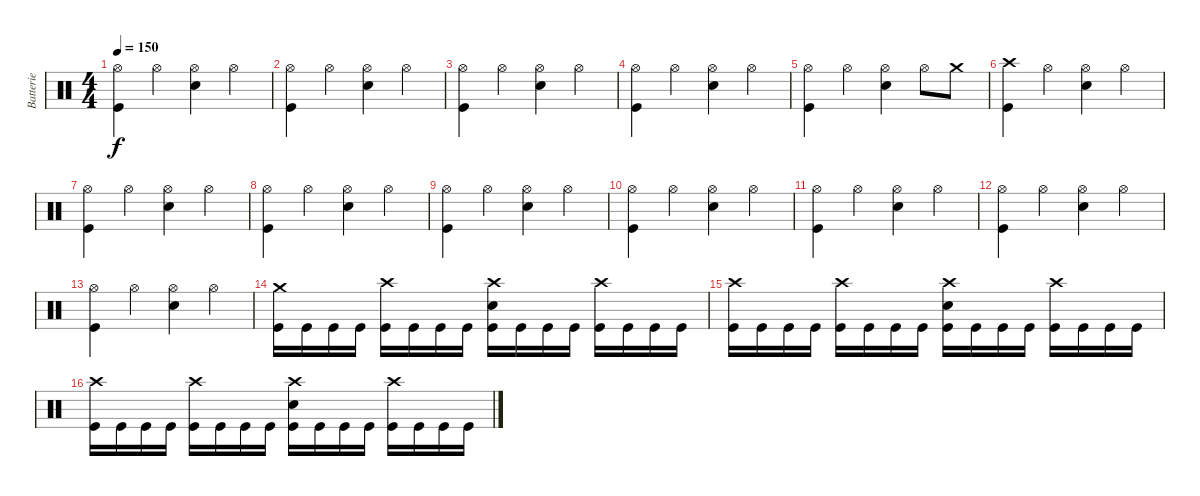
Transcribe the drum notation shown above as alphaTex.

\track ("Batterie" "Batterie") {instrument percussion}
\staff {score}
\articulation defaults
\ts (4 4)
\tempo 150
\clef neutral
\ks c
("Hi-Hat (open)" "Kick (hit)").4{dy f} "Hi-Hat (open)".4 ("Hi-Hat (open)" "Electric Snare (hit)").4 "Hi-Hat (open)".4 |
("Hi-Hat (open)" "Kick (hit)").4 "Hi-Hat (open)".4 ("Hi-Hat (open)" "Electric Snare (hit)").4 "Hi-Hat (open)".4 |
("Hi-Hat (open)" "Kick (hit)").4 "Hi-Hat (open)".4 ("Hi-Hat (open)" "Electric Snare (hit)").4 "Hi-Hat (open)".4 |
("Hi-Hat (open)" "Kick (hit)").4 "Hi-Hat (open)".4 ("Hi-Hat (open)" "Electric Snare (hit)").4 "Hi-Hat (open)".4 |
("Hi-Hat (open)" "Kick (hit)").4 "Hi-Hat (open)".4 ("Hi-Hat (open)" "Electric Snare (hit)").4 "Hi-Hat (open)".8 "Crash medium (hit)".8 |
("Crash high (hit)" "Kick (hit)").4 "Hi-Hat (open)".4 ("Hi-Hat (open)" "Electric Snare (hit)").4 "Hi-Hat (open)".4 |
("Hi-Hat (open)" "Kick (hit)").4 "Hi-Hat (open)".4 ("Hi-Hat (open)" "Electric Snare (hit)").4 "Hi-Hat (open)".4 |
("Hi-Hat (open)" "Kick (hit)").4 "Hi-Hat (open)".4 ("Hi-Hat (open)" "Electric Snare (hit)").4 "Hi-Hat (open)".4 |
("Hi-Hat (open)" "Kick (hit)").4 "Hi-Hat (open)".4 ("Hi-Hat (open)" "Electric Snare (hit)").4 "Hi-Hat (open)".4 |
("Hi-Hat (open)" "Kick (hit)").4 "Hi-Hat (open)".4 ("Hi-Hat (open)" "Electric Snare (hit)").4 "Hi-Hat (open)".4 |
("Hi-Hat (open)" "Kick (hit)").4 "Hi-Hat (open)".4 ("Hi-Hat (open)" "Electric Snare (hit)").4 "Hi-Hat (open)".4 |
("Hi-Hat (open)" "Kick (hit)").4 "Hi-Hat (open)".4 ("Hi-Hat (open)" "Electric Snare (hit)").4 "Hi-Hat (open)".4 |
("Hi-Hat (open)" "Kick (hit)").4 "Hi-Hat (open)".4 ("Hi-Hat (open)" "Electric Snare (hit)").4 "Hi-Hat (open)".4 |
("Crash medium (hit)" "Kick (hit)").16 "Kick (hit)".16 "Kick (hit)".16 "Kick (hit)".16 ("Crash high (hit)" "Kick (hit)").16 "Kick (hit)".16 "Kick (hit)".16 "Kick (hit)".16 ("Crash high (hit)" "Electric Snare (hit)" "Kick (hit)").16 "Kick (hit)".16 "Kick (hit)".16 "Kick (hit)".16 ("Crash high (hit)" "Kick (hit)").16 "Kick (hit)".16 "Kick (hit)".16 "Kick (hit)".16 |
("Crash high (hit)" "Kick (hit)").16 "Kick (hit)".16 "Kick (hit)".16 "Kick (hit)".16 ("Crash high (hit)" "Kick (hit)").16 "Kick (hit)".16 "Kick (hit)".16 "Kick (hit)".16 ("Crash high (hit)" "Electric Snare (hit)" "Kick (hit)").16 "Kick (hit)".16 "Kick (hit)".16 "Kick (hit)".16 ("Crash high (hit)" "Kick (hit)").16 "Kick (hit)".16 "Kick (hit)".16 "Kick (hit)".16 |
("Crash high (hit)" "Kick (hit)").16 "Kick (hit)".16 "Kick (hit)".16 "Kick (hit)".16 ("Crash high (hit)" "Kick (hit)").16 "Kick (hit)".16 "Kick (hit)".16 "Kick (hit)".16 ("Crash high (hit)" "Electric Snare (hit)" "Kick (hit)").16 "Kick (hit)".16 "Kick (hit)".16 "Kick (hit)".16 ("Crash high (hit)" "Kick (hit)").16 "Kick (hit)".16 "Kick (hit)".16 "Kick (hit)".16
